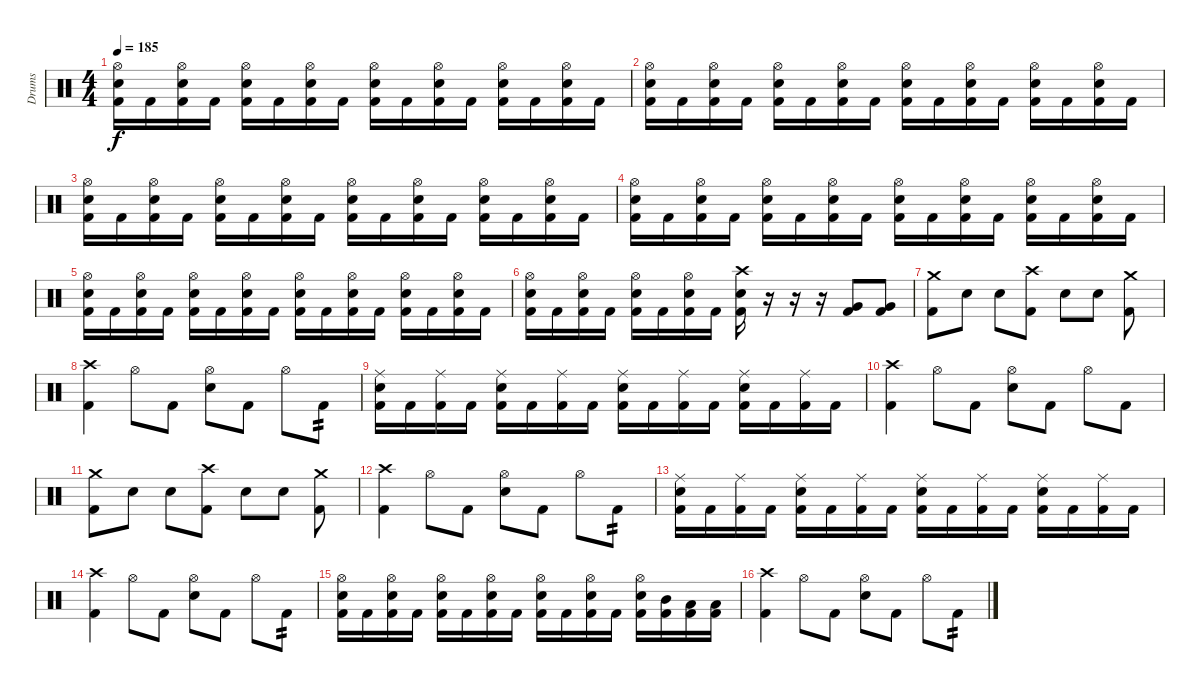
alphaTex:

\track ("Drums" "Drums") {instrument percussion}
\staff {score}
\articulation defaults
\ts (4 4)
\tempo 185
\clef neutral
\ks c
("Hi-Hat (open)" "Electric Snare (hit)" "Kick (hit) 2").16{dy f} "Kick (hit) 2".16 ("Hi-Hat (open)" "Electric Snare (hit)" "Kick (hit) 2").16 "Kick (hit) 2".16 ("Hi-Hat (open)" "Electric Snare (hit)" "Kick (hit) 2").16 "Kick (hit) 2".16 ("Hi-Hat (open)" "Electric Snare (hit)" "Kick (hit) 2").16 "Kick (hit) 2".16 ("Hi-Hat (open)" "Electric Snare (hit)" "Kick (hit) 2").16 "Kick (hit) 2".16 ("Hi-Hat (open)" "Electric Snare (hit)" "Kick (hit) 2").16 "Kick (hit) 2".16 ("Hi-Hat (open)" "Electric Snare (hit)" "Kick (hit) 2").16 "Kick (hit) 2".16 ("Hi-Hat (open)" "Electric Snare (hit)" "Kick (hit) 2").16 "Kick (hit) 2".16 |
("Hi-Hat (open)" "Electric Snare (hit)" "Kick (hit) 2").16 "Kick (hit) 2".16 ("Hi-Hat (open)" "Electric Snare (hit)" "Kick (hit) 2").16 "Kick (hit) 2".16 ("Hi-Hat (open)" "Electric Snare (hit)" "Kick (hit) 2").16 "Kick (hit) 2".16 ("Hi-Hat (open)" "Electric Snare (hit)" "Kick (hit) 2").16 "Kick (hit) 2".16 ("Hi-Hat (open)" "Electric Snare (hit)" "Kick (hit) 2").16 "Kick (hit) 2".16 ("Hi-Hat (open)" "Electric Snare (hit)" "Kick (hit) 2").16 "Kick (hit) 2".16 ("Hi-Hat (open)" "Electric Snare (hit)" "Kick (hit) 2").16 "Kick (hit) 2".16 ("Hi-Hat (open)" "Electric Snare (hit)" "Kick (hit) 2").16 "Kick (hit) 2".16 |
("Hi-Hat (open)" "Electric Snare (hit)" "Kick (hit) 2").16 "Kick (hit) 2".16 ("Hi-Hat (open)" "Electric Snare (hit)" "Kick (hit) 2").16 "Kick (hit) 2".16 ("Hi-Hat (open)" "Electric Snare (hit)" "Kick (hit) 2").16 "Kick (hit) 2".16 ("Hi-Hat (open)" "Electric Snare (hit)" "Kick (hit) 2").16 "Kick (hit) 2".16 ("Hi-Hat (open)" "Electric Snare (hit)" "Kick (hit) 2").16 "Kick (hit) 2".16 ("Hi-Hat (open)" "Electric Snare (hit)" "Kick (hit) 2").16 "Kick (hit) 2".16 ("Hi-Hat (open)" "Electric Snare (hit)" "Kick (hit) 2").16 "Kick (hit) 2".16 ("Hi-Hat (open)" "Electric Snare (hit)" "Kick (hit) 2").16 "Kick (hit) 2".16 |
("Hi-Hat (open)" "Electric Snare (hit)" "Kick (hit) 2").16 "Kick (hit) 2".16 ("Hi-Hat (open)" "Electric Snare (hit)" "Kick (hit) 2").16 "Kick (hit) 2".16 ("Hi-Hat (open)" "Electric Snare (hit)" "Kick (hit) 2").16 "Kick (hit) 2".16 ("Hi-Hat (open)" "Electric Snare (hit)" "Kick (hit) 2").16 "Kick (hit) 2".16 ("Hi-Hat (open)" "Electric Snare (hit)" "Kick (hit) 2").16 "Kick (hit) 2".16 ("Hi-Hat (open)" "Electric Snare (hit)" "Kick (hit) 2").16 "Kick (hit) 2".16 ("Hi-Hat (open)" "Electric Snare (hit)" "Kick (hit) 2").16 "Kick (hit) 2".16 ("Hi-Hat (open)" "Electric Snare (hit)" "Kick (hit) 2").16 "Kick (hit) 2".16 |
("Hi-Hat (open)" "Electric Snare (hit)" "Kick (hit) 2").16 "Kick (hit) 2".16 ("Hi-Hat (open)" "Electric Snare (hit)" "Kick (hit) 2").16 "Kick (hit) 2".16 ("Hi-Hat (open)" "Electric Snare (hit)" "Kick (hit) 2").16 "Kick (hit) 2".16 ("Hi-Hat (open)" "Electric Snare (hit)" "Kick (hit) 2").16 "Kick (hit) 2".16 ("Hi-Hat (open)" "Electric Snare (hit)" "Kick (hit) 2").16 "Kick (hit) 2".16 ("Hi-Hat (open)" "Electric Snare (hit)" "Kick (hit) 2").16 "Kick (hit) 2".16 ("Hi-Hat (open)" "Electric Snare (hit)" "Kick (hit) 2").16 "Kick (hit) 2".16 ("Hi-Hat (open)" "Electric Snare (hit)" "Kick (hit) 2").16 "Kick (hit) 2".16 |
("Hi-Hat (open)" "Electric Snare (hit)" "Kick (hit) 2").16 "Kick (hit) 2".16 ("Hi-Hat (open)" "Electric Snare (hit)" "Kick (hit) 2").16 "Kick (hit) 2".16 ("Hi-Hat (open)" "Electric Snare (hit)" "Kick (hit) 2").16 "Kick (hit) 2".16 ("Hi-Hat (open)" "Electric Snare (hit)" "Kick (hit) 2").16 "Kick (hit) 2".16 ("Crash high (hit)" "Electric Snare (hit)" "Kick (hit) 2").16 r.16 r.16 r.16 ("Very Low Tom (hit)" "Kick (hit) 2").8 ("Very Low Tom (hit)" "Kick (hit) 2").8 |
("Crash medium (hit)" "Kick (hit) 2").8 "Electric Snare (hit)".8 "Electric Snare (hit)".8 ("Crash high (hit)" "Kick (hit) 2").8 "Electric Snare (hit)".8 "Electric Snare (hit)".8 ("Crash medium (hit)" "Kick (hit) 2").8 |
("Crash high (hit)" "Kick (hit) 2").4 "Hi-Hat (open)".8 "Kick (hit) 2".8 ("Hi-Hat (open)" "Electric Snare (hit)").8 "Kick (hit) 2".8 "Hi-Hat (open)".8 "Kick (hit) 2".8{tp 2} |
("Ride (middle)" "Electric Snare (hit)" "Kick (hit) 2").16 "Kick (hit) 2".16 ("Ride (middle)" "Kick (hit) 2").16 "Kick (hit) 2".16 ("Ride (middle)" "Electric Snare (hit)" "Kick (hit) 2").16 "Kick (hit) 2".16 ("Ride (middle)" "Kick (hit) 2").16 "Kick (hit) 2".16 ("Ride (middle)" "Electric Snare (hit)" "Kick (hit) 2").16 "Kick (hit) 2".16 ("Ride (middle)" "Kick (hit) 2").16 "Kick (hit) 2".16 ("Ride (middle)" "Electric Snare (hit)" "Kick (hit) 2").16 "Kick (hit) 2".16 ("Ride (middle)" "Kick (hit) 2").16 "Kick (hit) 2".16 |
("Crash high (hit)" "Kick (hit) 2").4 "Hi-Hat (open)".8 "Kick (hit) 2".8 ("Hi-Hat (open)" "Electric Snare (hit)").8 "Kick (hit) 2".8 "Hi-Hat (open)".8 "Kick (hit) 2".8 |
("Crash medium (hit)" "Kick (hit) 2").8 "Electric Snare (hit)".8 "Electric Snare (hit)".8 ("Crash high (hit)" "Kick (hit) 2").8 "Electric Snare (hit)".8 "Electric Snare (hit)".8 ("Crash medium (hit)" "Kick (hit) 2").8 |
("Crash high (hit)" "Kick (hit) 2").4 "Hi-Hat (open)".8 "Kick (hit) 2".8 ("Hi-Hat (open)" "Electric Snare (hit)").8 "Kick (hit) 2".8 "Hi-Hat (open)".8 "Kick (hit) 2".8{tp 2} |
("Ride (middle)" "Electric Snare (hit)" "Kick (hit) 2").16 "Kick (hit) 2".16 ("Ride (middle)" "Kick (hit) 2").16 "Kick (hit) 2".16 ("Ride (middle)" "Electric Snare (hit)" "Kick (hit) 2").16 "Kick (hit) 2".16 ("Ride (middle)" "Kick (hit) 2").16 "Kick (hit) 2".16 ("Ride (middle)" "Electric Snare (hit)" "Kick (hit) 2").16 "Kick (hit) 2".16 ("Ride (middle)" "Kick (hit) 2").16 "Kick (hit) 2".16 ("Ride (middle)" "Electric Snare (hit)" "Kick (hit) 2").16 "Kick (hit) 2".16 ("Ride (middle)" "Kick (hit) 2").16 "Kick (hit) 2".16 |
("Crash high (hit)" "Kick (hit) 2").4 "Hi-Hat (open)".8 "Kick (hit) 2".8 ("Hi-Hat (open)" "Electric Snare (hit)").8 "Kick (hit) 2".8 "Hi-Hat (open)".8 "Kick (hit) 2".8{tp 2} |
("Hi-Hat (open)" "Electric Snare (hit)" "Kick (hit) 2").16 "Kick (hit) 2".16 ("Hi-Hat (open)" "Electric Snare (hit)" "Kick (hit) 2").16 "Kick (hit) 2".16 ("Hi-Hat (open)" "Electric Snare (hit)" "Kick (hit) 2").16 "Kick (hit) 2".16 ("Hi-Hat (open)" "Electric Snare (hit)" "Kick (hit) 2").16 "Kick (hit) 2".16 ("Hi-Hat (open)" "Electric Snare (hit)" "Kick (hit) 2").16 "Kick (hit) 2".16 ("Hi-Hat (open)" "Electric Snare (hit)" "Kick (hit) 2").16 "Kick (hit) 2".16 ("Hi-Hat (open)" "Electric Snare (hit)" "Kick (hit) 2").16 ("Mid Tom (hit)" "Kick (hit) 2").16 ("Low Tom (hit)" "Kick (hit) 2").16 ("Low Tom (hit)" "Kick (hit) 2").16 |
("Crash high (hit)" "Kick (hit) 2").4 "Hi-Hat (open)".8 "Kick (hit) 2".8 ("Hi-Hat (open)" "Electric Snare (hit)").8 "Kick (hit) 2".8 "Hi-Hat (open)".8 "Kick (hit) 2".8{tp 2}
